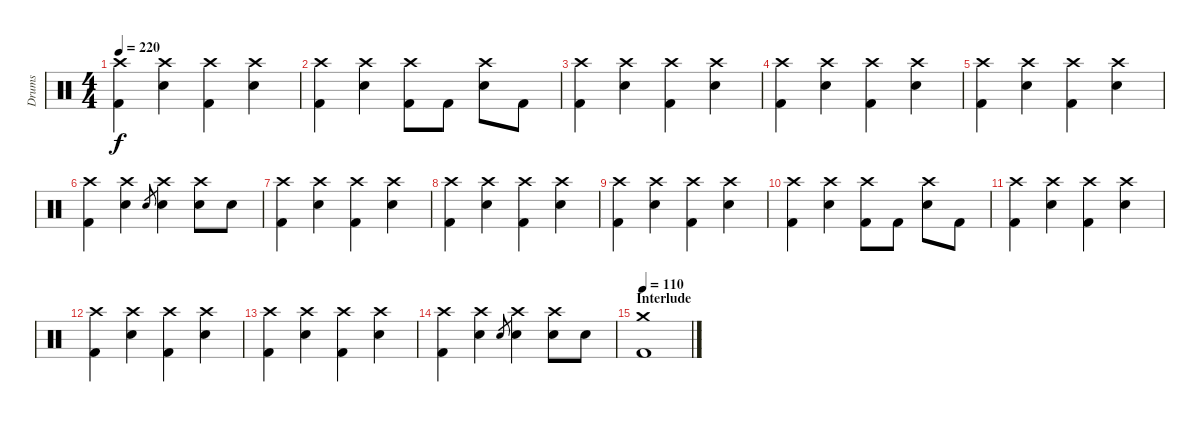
\track ("Drums" "Drums") {instrument percussion}
\staff {score}
\articulation defaults
\ts (4 4)
\tempo 220
\clef neutral
\ks c
("Crash high (hit)" "Kick (hit) 2").4{dy f} ("Crash high (hit)" "Electric Snare (hit)").4 ("Crash high (hit)" "Kick (hit) 2").4 ("Crash high (hit)" "Electric Snare (hit)").4 |
("Crash high (hit)" "Kick (hit) 2").4 ("Crash high (hit)" "Electric Snare (hit)").4 ("Crash high (hit)" "Kick (hit) 2").8 "Kick (hit) 2".8 ("Crash high (hit)" "Electric Snare (hit)").8 "Kick (hit) 2".8 |
("Crash high (hit)" "Kick (hit) 2").4 ("Crash high (hit)" "Electric Snare (hit)").4 ("Crash high (hit)" "Kick (hit) 2").4 ("Crash high (hit)" "Electric Snare (hit)").4 |
("Crash high (hit)" "Kick (hit) 2").4 ("Crash high (hit)" "Electric Snare (hit)").4 ("Crash high (hit)" "Kick (hit) 2").4 ("Crash high (hit)" "Electric Snare (hit)").4 |
("Crash high (hit)" "Kick (hit) 2").4 ("Crash high (hit)" "Electric Snare (hit)").4 ("Crash high (hit)" "Kick (hit) 2").4 ("Crash high (hit)" "Electric Snare (hit)").4 |
("Crash high (hit)" "Kick (hit) 2").4 ("Crash high (hit)" "Electric Snare (hit)").4 "Electric Snare (hit)".8{gr} ("Crash high (hit)" "Electric Snare (hit)").4 ("Crash high (hit)" "Electric Snare (hit)").8 "Electric Snare (hit)".8 |
("Crash high (hit)" "Kick (hit) 2").4 ("Crash high (hit)" "Electric Snare (hit)").4 ("Crash high (hit)" "Kick (hit) 2").4 ("Crash high (hit)" "Electric Snare (hit)").4 |
("Crash high (hit)" "Kick (hit) 2").4 ("Crash high (hit)" "Electric Snare (hit)").4 ("Crash high (hit)" "Kick (hit) 2").4 ("Crash high (hit)" "Electric Snare (hit)").4 |
("Crash high (hit)" "Kick (hit) 2").4 ("Crash high (hit)" "Electric Snare (hit)").4 ("Crash high (hit)" "Kick (hit) 2").4 ("Crash high (hit)" "Electric Snare (hit)").4 |
("Crash high (hit)" "Kick (hit) 2").4 ("Crash high (hit)" "Electric Snare (hit)").4 ("Crash high (hit)" "Kick (hit) 2").8 "Kick (hit) 2".8 ("Crash high (hit)" "Electric Snare (hit)").8 "Kick (hit) 2".8 |
("Crash high (hit)" "Kick (hit) 2").4 ("Crash high (hit)" "Electric Snare (hit)").4 ("Crash high (hit)" "Kick (hit) 2").4 ("Crash high (hit)" "Electric Snare (hit)").4 |
("Crash high (hit)" "Kick (hit) 2").4 ("Crash high (hit)" "Electric Snare (hit)").4 ("Crash high (hit)" "Kick (hit) 2").4 ("Crash high (hit)" "Electric Snare (hit)").4 |
("Crash high (hit)" "Kick (hit) 2").4 ("Crash high (hit)" "Electric Snare (hit)").4 ("Crash high (hit)" "Kick (hit) 2").4 ("Crash high (hit)" "Electric Snare (hit)").4 |
("Crash high (hit)" "Kick (hit) 2").4 ("Crash high (hit)" "Electric Snare (hit)").4 "Electric Snare (hit)".8{gr} ("Crash high (hit)" "Electric Snare (hit)").4 ("Crash high (hit)" "Electric Snare (hit)").8 "Electric Snare (hit)".8 |
\section ("" "Interlude")
\tempo 110
("Crash medium (hit)" "Kick (hit) 2").1
